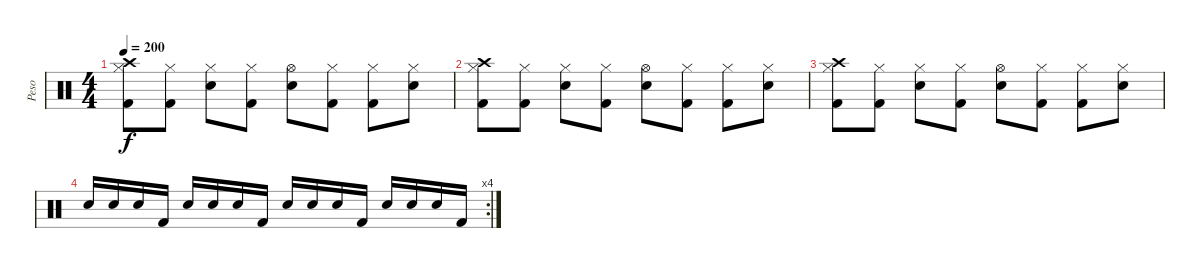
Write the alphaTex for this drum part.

\track ("Peso" "Peso") {instrument percussion}
\staff {score}
\articulation defaults
\ts (4 4)
\tempo 200
\clef neutral
\ks c
("Crash high (hit)" "Hi-Hat (closed)" "Kick (hit) 2").8{dy f} ("Hi-Hat (closed)" "Kick (hit) 2").8 ("Hi-Hat (closed)" "Snare (hit) 2").8 ("Hi-Hat (closed)" "Kick (hit) 2").8 ("Hi-Hat (open)" "Snare (hit) 2").8 ("Hi-Hat (closed)" "Kick (hit) 2").8 ("Hi-Hat (closed)" "Kick (hit) 2").8 ("Hi-Hat (closed)" "Snare (hit) 2").8 |
("Crash high (hit)" "Hi-Hat (closed)" "Kick (hit) 2").8 ("Hi-Hat (closed)" "Kick (hit) 2").8 ("Hi-Hat (closed)" "Snare (hit) 2").8 ("Hi-Hat (closed)" "Kick (hit) 2").8 ("Hi-Hat (open)" "Snare (hit) 2").8 ("Hi-Hat (closed)" "Kick (hit) 2").8 ("Hi-Hat (closed)" "Kick (hit) 2").8 ("Hi-Hat (closed)" "Snare (hit) 2").8 |
("Crash high (hit)" "Hi-Hat (closed)" "Kick (hit) 2").8 ("Hi-Hat (closed)" "Kick (hit) 2").8 ("Hi-Hat (closed)" "Snare (hit) 2").8 ("Hi-Hat (closed)" "Kick (hit) 2").8 ("Hi-Hat (open)" "Snare (hit) 2").8 ("Hi-Hat (closed)" "Kick (hit) 2").8 ("Hi-Hat (closed)" "Kick (hit) 2").8 ("Hi-Hat (closed)" "Snare (hit) 2").8 |
\rc 4 "Snare (hit) 2".16 "Snare (hit) 2".16 "Snare (hit) 2".16 "Kick (hit) 2".16 "Snare (hit) 2".16 "Snare (hit) 2".16 "Snare (hit) 2".16 "Kick (hit) 2".16 "Snare (hit) 2".16 "Snare (hit) 2".16 "Snare (hit) 2".16 "Kick (hit) 2".16 "Snare (hit) 2".16 "Snare (hit) 2".16 "Snare (hit) 2".16 "Kick (hit) 2".16
